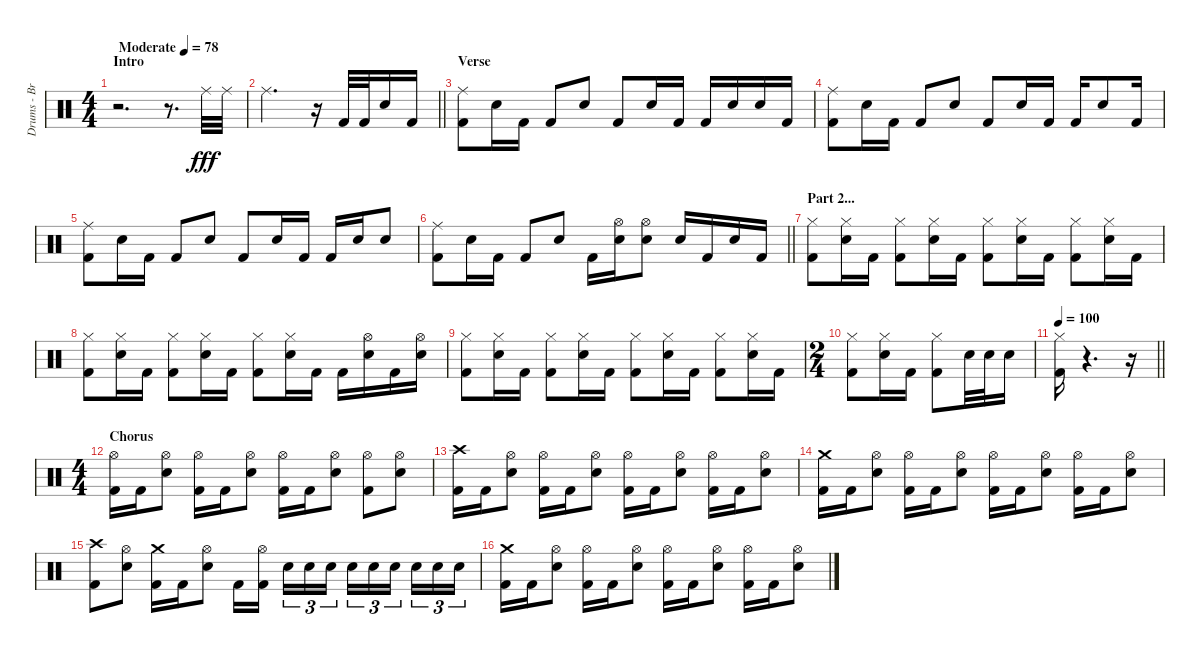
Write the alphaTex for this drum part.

\track ("Drums - Brandon" "Drums - Br") {instrument percussion}
\staff {score}
\articulation defaults
\ts (4 4)
\section ("" "Intro")
\tempo (78 "Moderate")
\clef neutral
\ks c
r.2{d dy fff} r.8{d} "Ride (middle)".32 "Ride (middle)".32 |
\barLineRight lightlight "Ride (middle)".2{d}
r.16 "Kick (hit) 2".32 "Kick (hit) 2".32 "Snare (hit) 2".16 "Kick (hit) 2".16 |
\section ("" "Verse")
("Ride (middle)" "Kick (hit) 2").8 "Snare (hit) 2".16 "Kick (hit) 2".16 "Kick (hit) 2".8 "Snare (hit) 2".8 "Kick (hit) 2".8 "Snare (hit) 2".16 "Kick (hit) 2".16 "Kick (hit) 2".16 "Snare (hit) 2".16 "Snare (hit) 2".16 "Kick (hit) 2".16 |
("Ride (middle)" "Kick (hit) 2").8 "Snare (hit) 2".16 "Kick (hit) 2".16 "Kick (hit) 2".8 "Snare (hit) 2".8 "Kick (hit) 2".8 "Snare (hit) 2".16 "Kick (hit) 2".16 "Kick (hit) 2".16 "Snare (hit) 2".8 "Kick (hit) 2".16 |
("Ride (middle)" "Kick (hit) 2").8 "Snare (hit) 2".16 "Kick (hit) 2".16 "Kick (hit) 2".8 "Snare (hit) 2".8 "Kick (hit) 2".8 "Snare (hit) 2".16 "Kick (hit) 2".16 "Kick (hit) 2".16 "Snare (hit) 2".16 "Snare (hit) 2".8 |
\barLineRight lightlight
("Ride (middle)" "Kick (hit) 2").8 "Snare (hit) 2".16 "Kick (hit) 2".16 "Kick (hit) 2".8 "Snare (hit) 2".8 "Kick (hit) 2".16 ("Hi-Hat (open)" "Snare (hit) 2").16 ("Hi-Hat (open)" "Snare (hit) 2").8 "Snare (hit) 2".16 "Kick (hit) 2".16 "Snare (hit) 2".16 "Kick (hit) 2".16 |
\section ("" "Part 2...")
("Hi-Hat (closed)" "Kick (hit) 2").8 ("Hi-Hat (closed)" "Snare (hit) 2").16 "Kick (hit) 2".16 ("Hi-Hat (closed)" "Kick (hit) 2").8 ("Hi-Hat (closed)" "Snare (hit) 2").16 "Kick (hit) 2".16 ("Hi-Hat (closed)" "Kick (hit) 2").8 ("Hi-Hat (closed)" "Snare (hit) 2").16 "Kick (hit) 2".16 ("Hi-Hat (closed)" "Kick (hit) 2").8 ("Hi-Hat (closed)" "Snare (hit) 2").16 "Kick (hit) 2".16 |
("Hi-Hat (closed)" "Kick (hit) 2").8 ("Hi-Hat (closed)" "Snare (hit) 2").16 "Kick (hit) 2".16 ("Hi-Hat (closed)" "Kick (hit) 2").8 ("Hi-Hat (closed)" "Snare (hit) 2").16 "Kick (hit) 2".16 ("Hi-Hat (closed)" "Kick (hit) 2").8 ("Hi-Hat (closed)" "Snare (hit) 2").16 "Kick (hit) 2".16 "Kick (hit) 2".16 ("Hi-Hat (open)" "Snare (hit) 2").16 "Kick (hit) 2".16 ("Hi-Hat (open)" "Snare (hit) 2").16 |
("Hi-Hat (closed)" "Kick (hit) 2").8 ("Hi-Hat (closed)" "Snare (hit) 2").16 "Kick (hit) 2".16 ("Hi-Hat (closed)" "Kick (hit) 2").8 ("Hi-Hat (closed)" "Snare (hit) 2").16 "Kick (hit) 2".16 ("Hi-Hat (closed)" "Kick (hit) 2").8 ("Hi-Hat (closed)" "Snare (hit) 2").16 "Kick (hit) 2".16 ("Hi-Hat (closed)" "Kick (hit) 2").8 ("Hi-Hat (closed)" "Snare (hit) 2").16 "Kick (hit) 2".16 |
\ts (2 4)
("Hi-Hat (closed)" "Kick (hit) 2").8 ("Hi-Hat (closed)" "Snare (hit) 2").16 "Kick (hit) 2".16 ("Hi-Hat (closed)" "Kick (hit) 2").8 "Snare (hit) 2".32 "Snare (hit) 2".32 "Snare (hit) 2".16 |
\tempo 100
\barLineRight lightlight
("Hi-Hat (closed)" "Kick (hit) 2").16 r.4{d} r.16 |
\ts (4 4)
\section ("" "Chorus")
("Hi-Hat (open)" "Kick (hit) 2").16 "Kick (hit) 2".16 ("Hi-Hat (open)" "Snare (hit) 2").8 ("Hi-Hat (open)" "Kick (hit) 2").16 "Kick (hit) 2".16 ("Hi-Hat (open)" "Snare (hit) 2").8 ("Hi-Hat (open)" "Kick (hit) 2").16 "Kick (hit) 2".16 ("Hi-Hat (open)" "Snare (hit) 2").8 ("Hi-Hat (open)" "Kick (hit) 2").8 ("Hi-Hat (open)" "Snare (hit) 2").8 |
("Crash high (hit)" "Kick (hit) 2").16 "Kick (hit) 2".16 ("Hi-Hat (open)" "Snare (hit) 2").8 ("Hi-Hat (open)" "Kick (hit) 2").16 "Kick (hit) 2".16 ("Hi-Hat (open)" "Snare (hit) 2").8 ("Hi-Hat (open)" "Kick (hit) 2").16 "Kick (hit) 2".16 ("Hi-Hat (open)" "Snare (hit) 2").8 ("Hi-Hat (open)" "Kick (hit) 2").16 "Kick (hit) 2".16 ("Hi-Hat (open)" "Snare (hit) 2").8 |
("Crash medium (hit)" "Kick (hit) 2").16 "Kick (hit) 2".16 ("Hi-Hat (open)" "Snare (hit) 2").8 ("Hi-Hat (open)" "Kick (hit) 2").16 "Kick (hit) 2".16 ("Hi-Hat (open)" "Snare (hit) 2").8 ("Hi-Hat (open)" "Kick (hit) 2").16 "Kick (hit) 2".16 ("Hi-Hat (open)" "Snare (hit) 2").8 ("Hi-Hat (open)" "Kick (hit) 2").16 "Kick (hit) 2".16 ("Hi-Hat (open)" "Snare (hit) 2").8 |
("Crash high (hit)" "Kick (hit) 2").8 ("Hi-Hat (open)" "Snare (hit) 2").8 ("Crash medium (hit)" "Kick (hit) 2").16 "Kick (hit) 2".16 ("Hi-Hat (open)" "Snare (hit) 2").8 "Kick (hit) 2".16 ("Hi-Hat (open)" "Kick (hit) 2").16{beam splitsecondary} "Snare (hit) 2".16{tu (3 2)} "Snare (hit) 2".16{tu (3 2)} "Snare (hit) 2".16{tu (3 2)} "Snare (hit) 2".16{tu (3 2)} "Snare (hit) 2".16{tu (3 2)} "Snare (hit) 2".16{tu (3 2) beam splitsecondary} "Snare (hit) 2".16{tu (3 2)} "Snare (hit) 2".16{tu (3 2)} "Snare (hit) 2".16{tu (3 2)} |
("Crash medium (hit)" "Kick (hit) 2").16 "Kick (hit) 2".16 ("Hi-Hat (open)" "Snare (hit) 2").8 ("Hi-Hat (open)" "Kick (hit) 2").16 "Kick (hit) 2".16 ("Hi-Hat (open)" "Snare (hit) 2").8 ("Hi-Hat (open)" "Kick (hit) 2").16 "Kick (hit) 2".16 ("Hi-Hat (open)" "Snare (hit) 2").8 ("Hi-Hat (open)" "Kick (hit) 2").16 "Kick (hit) 2".16 ("Hi-Hat (open)" "Snare (hit) 2").8
